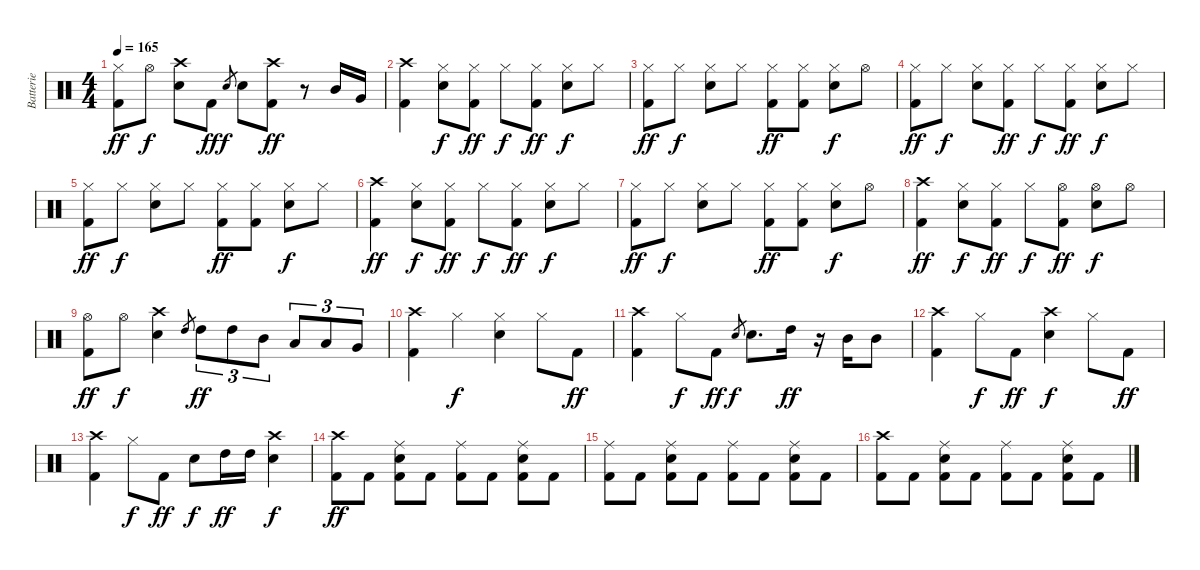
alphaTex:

\track ("Batterie" "Batterie") {instrument percussion}
\staff {score}
\articulation defaults
\ts (4 4)
\tempo 165
\clef neutral
\ks c
("Hi-Hat (closed)" "Kick (hit) 2").8{dy ff} "Hi-Hat (open)".8{dy f} ("Crash high (hit)" "Snare (hit) 2").8 "Kick (hit) 2".8{dy ff} "Snare (hit) 2".8{gr dy f} "Snare (hit) 2".8 ("Crash high (hit)" "Kick (hit) 2").8{dy ff} r.8 "Mid Tom (hit)".16 "Very Low Tom (hit)".16 |
("Crash high (hit)" "Kick (hit) 2").4 ("Hi-Hat (closed)" "Snare (hit) 2").8{dy f} ("Hi-Hat (closed)" "Kick (hit) 2").8{dy ff} "Hi-Hat (closed)".8{dy f} ("Hi-Hat (closed)" "Kick (hit) 2").8{dy ff} ("Hi-Hat (closed)" "Snare (hit) 2").8{dy f} "Hi-Hat (closed)".8 |
("Hi-Hat (closed)" "Kick (hit) 2").8{dy ff} "Hi-Hat (closed)".8{dy f} ("Hi-Hat (closed)" "Snare (hit) 2").8 "Hi-Hat (closed)".8 ("Hi-Hat (closed)" "Kick (hit) 2").8{dy ff} ("Hi-Hat (closed)" "Kick (hit) 2").8 ("Hi-Hat (closed)" "Snare (hit) 2").8{dy f} "Hi-Hat (open)".8 |
("Hi-Hat (closed)" "Kick (hit) 2").8{dy ff} "Hi-Hat (closed)".8{dy f} ("Hi-Hat (closed)" "Snare (hit) 2").8 ("Hi-Hat (closed)" "Kick (hit) 2").8{dy ff} "Hi-Hat (closed)".8{dy f} ("Hi-Hat (closed)" "Kick (hit) 2").8{dy ff} ("Hi-Hat (closed)" "Snare (hit) 2").8{dy f} "Hi-Hat (closed)".8 |
("Hi-Hat (closed)" "Kick (hit) 2").8{dy ff} "Hi-Hat (closed)".8{dy f} ("Hi-Hat (closed)" "Snare (hit) 2").8 "Hi-Hat (closed)".8 ("Hi-Hat (closed)" "Kick (hit) 2").8{dy ff} ("Hi-Hat (closed)" "Kick (hit) 2").8 ("Hi-Hat (closed)" "Snare (hit) 2").8{dy f} "Hi-Hat (closed)".8 |
("Crash high (hit)" "Kick (hit) 2").4{dy ff} ("Hi-Hat (closed)" "Snare (hit) 2").8{dy f} ("Hi-Hat (closed)" "Kick (hit) 2").8{dy ff} "Hi-Hat (closed)".8{dy f} ("Hi-Hat (closed)" "Kick (hit) 2").8{dy ff} ("Hi-Hat (closed)" "Snare (hit) 2").8{dy f} "Hi-Hat (closed)".8 |
("Hi-Hat (closed)" "Kick (hit) 2").8{dy ff} "Hi-Hat (closed)".8{dy f} ("Hi-Hat (closed)" "Snare (hit) 2").8 "Hi-Hat (closed)".8 ("Hi-Hat (closed)" "Kick (hit) 2").8{dy ff} ("Hi-Hat (closed)" "Kick (hit) 2").8 ("Hi-Hat (closed)" "Snare (hit) 2").8{dy f} "Hi-Hat (open)".8 |
("Crash high (hit)" "Kick (hit) 2").4{dy ff} ("Hi-Hat (closed)" "Snare (hit) 2").8{dy f} ("Hi-Hat (closed)" "Kick (hit) 2").8{dy ff} "Hi-Hat (closed)".8{dy f} ("Hi-Hat (open)" "Kick (hit) 2").8{dy ff} ("Hi-Hat (open)" "Snare (hit) 2").8{dy f} "Hi-Hat (open)".8 |
("Hi-Hat (open)" "Kick (hit) 2").8{dy ff} "Hi-Hat (open)".8{dy f} ("Crash high (hit)" "Snare (hit) 2").4 "High Tom (hit)".8{gr} "High Tom (hit)".8{tu (3 2) dy ff} "High Tom (hit)".8{tu (3 2)} "Mid Tom (hit)".8{tu (3 2)} "Low Tom (hit)".8{tu (3 2)} "Low Tom (hit)".8{tu (3 2)} "Very Low Tom (hit)".8{tu (3 2)} |
("Crash high (hit)" "Kick (hit) 2").4 "Hi-Hat (closed)".4{dy f} ("Hi-Hat (closed)" "Snare (hit) 2").4 "Hi-Hat (closed)".8 "Kick (hit) 2".8{dy ff} |
("Crash high (hit)" "Kick (hit) 2").4 "Hi-Hat (closed)".8{dy f} "Kick (hit) 2".8{dy ff} "Snare (hit) 2".8{gr dy f} "Snare (hit) 2".8{d} "High Tom (hit)".16{dy ff} r.16 "Mid Tom (hit)".16 "Mid Tom (hit)".8 |
("Crash high (hit)" "Kick (hit) 2").4 "Hi-Hat (closed)".8{dy f} "Kick (hit) 2".8{dy ff} ("Crash high (hit)" "Snare (hit) 2").4{dy f} "Hi-Hat (closed)".8 "Kick (hit) 2".8{dy ff} |
("Crash high (hit)" "Kick (hit) 2").4 "Hi-Hat (closed)".8{dy f} "Kick (hit) 2".8{dy ff} "Snare (hit) 2".8{dy f} "High Tom (hit)".16{dy ff} "High Tom (hit)".16 ("Crash high (hit)" "Snare (hit) 2").4{dy f} |
("Crash high (hit)" "Kick (hit) 2").8{dy ff} "Kick (hit) 2".8 ("Ride (middle)" "Snare (hit) 2" "Kick (hit) 2").8 "Kick (hit) 2".8 ("Ride (middle)" "Kick (hit) 2").8 "Kick (hit) 2".8 ("Ride (middle)" "Snare (hit) 2" "Kick (hit) 2").8 "Kick (hit) 2".8 |
("Ride (middle)" "Kick (hit) 2").8 "Kick (hit) 2".8 ("Ride (middle)" "Snare (hit) 2" "Kick (hit) 2").8 "Kick (hit) 2".8 ("Ride (middle)" "Kick (hit) 2").8 "Kick (hit) 2".8 ("Ride (middle)" "Snare (hit) 2" "Kick (hit) 2").8 "Kick (hit) 2".8 |
("Crash high (hit)" "Kick (hit) 2").8 "Kick (hit) 2".8 ("Ride (middle)" "Snare (hit) 2" "Kick (hit) 2").8 "Kick (hit) 2".8 ("Ride (middle)" "Kick (hit) 2").8 "Kick (hit) 2".8 ("Ride (middle)" "Snare (hit) 2" "Kick (hit) 2").8 "Kick (hit) 2".8
